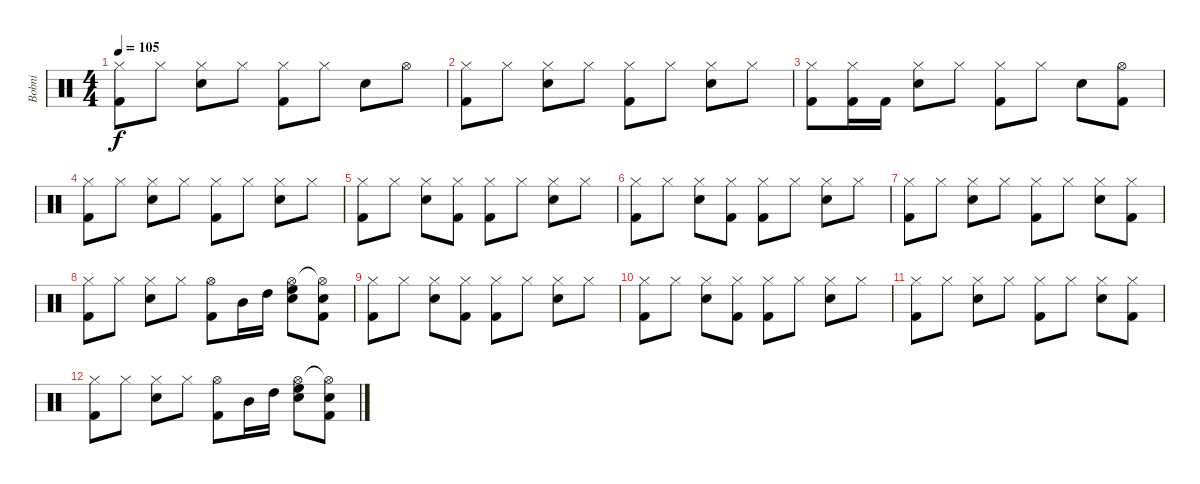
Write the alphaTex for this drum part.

\track ("Bobni" "Bobni") {instrument percussion}
\staff {score}
\articulation defaults
\ts (4 4)
\tempo 105
\clef neutral
\ks c
("Hi-Hat (closed)" "Kick (hit) 2").8{dy f} "Hi-Hat (closed)".8 ("Hi-Hat (closed)" "Snare (hit) 2").8 "Hi-Hat (closed)".8 ("Hi-Hat (closed)" "Kick (hit) 2").8 "Hi-Hat (closed)".8 "Snare (hit) 2".8 "Hi-Hat (open)".8 |
("Hi-Hat (closed)" "Kick (hit) 2").8 "Hi-Hat (closed)".8 ("Hi-Hat (closed)" "Snare (hit) 2").8 "Hi-Hat (closed)".8 ("Hi-Hat (closed)" "Kick (hit) 2").8 "Hi-Hat (closed)".8 ("Hi-Hat (closed)" "Snare (hit) 2").8 "Hi-Hat (closed)".8 |
("Hi-Hat (closed)" "Kick (hit) 2").8 ("Hi-Hat (closed)" "Kick (hit) 2").16 "Kick (hit) 2".16 ("Hi-Hat (closed)" "Snare (hit) 2").8 "Hi-Hat (closed)".8 ("Hi-Hat (closed)" "Kick (hit) 2").8 "Hi-Hat (closed)".8 "Snare (hit) 2".8 ("Hi-Hat (open)" "Kick (hit) 2").8 |
("Hi-Hat (closed)" "Kick (hit) 2").8 "Hi-Hat (closed)".8 ("Hi-Hat (closed)" "Snare (hit) 2").8 "Hi-Hat (closed)".8 ("Hi-Hat (closed)" "Kick (hit) 2").8 "Hi-Hat (closed)".8 ("Hi-Hat (closed)" "Snare (hit) 2").8 "Hi-Hat (closed)".8 |
("Hi-Hat (closed)" "Kick (hit) 2").8 "Hi-Hat (closed)".8 ("Hi-Hat (closed)" "Snare (hit) 2").8 ("Hi-Hat (closed)" "Kick (hit) 2").8 ("Hi-Hat (closed)" "Kick (hit) 2").8 "Hi-Hat (closed)".8 ("Hi-Hat (closed)" "Snare (hit) 2").8 "Hi-Hat (closed)".8 |
("Hi-Hat (closed)" "Kick (hit) 2").8 "Hi-Hat (closed)".8 ("Hi-Hat (closed)" "Snare (hit) 2").8 ("Hi-Hat (closed)" "Kick (hit) 2").8 ("Hi-Hat (closed)" "Kick (hit) 2").8 "Hi-Hat (closed)".8 ("Hi-Hat (closed)" "Snare (hit) 2").8 "Hi-Hat (closed)".8 |
("Hi-Hat (closed)" "Kick (hit) 2").8 "Hi-Hat (closed)".8 ("Hi-Hat (closed)" "Snare (hit) 2").8 "Hi-Hat (closed)".8 ("Hi-Hat (closed)" "Kick (hit) 2").8 "Hi-Hat (closed)".8 ("Hi-Hat (closed)" "Snare (hit) 2").8 ("Hi-Hat (closed)" "Kick (hit) 2").8 |
("Hi-Hat (closed)" "Kick (hit) 2").8 "Hi-Hat (closed)".8 ("Hi-Hat (closed)" "Snare (hit) 2").8 "Hi-Hat (closed)".8 ("Hi-Hat (open)" "Kick (hit) 2").8 "Mid Tom (hit)".16 "High Tom (hit)".16 ("Hi-Hat (open)" "Snare (hit) 2" "High Floor Tom (hit)").8 ("Hi-Hat (open)"{t} "Snare (hit) 2" "Kick (hit) 2").8 |
("Hi-Hat (closed)" "Kick (hit) 2").8 "Hi-Hat (closed)".8 ("Hi-Hat (closed)" "Snare (hit) 2").8 ("Hi-Hat (closed)" "Kick (hit) 2").8 ("Hi-Hat (closed)" "Kick (hit) 2").8 "Hi-Hat (closed)".8 ("Hi-Hat (closed)" "Snare (hit) 2").8 "Hi-Hat (closed)".8 |
("Hi-Hat (closed)" "Kick (hit) 2").8 "Hi-Hat (closed)".8 ("Hi-Hat (closed)" "Snare (hit) 2").8 ("Hi-Hat (closed)" "Kick (hit) 2").8 ("Hi-Hat (closed)" "Kick (hit) 2").8 "Hi-Hat (closed)".8 ("Hi-Hat (closed)" "Snare (hit) 2").8 "Hi-Hat (closed)".8 |
("Hi-Hat (closed)" "Kick (hit) 2").8 "Hi-Hat (closed)".8 ("Hi-Hat (closed)" "Snare (hit) 2").8 "Hi-Hat (closed)".8 ("Hi-Hat (closed)" "Kick (hit) 2").8 "Hi-Hat (closed)".8 ("Hi-Hat (closed)" "Snare (hit) 2").8 ("Hi-Hat (closed)" "Kick (hit) 2").8 |
("Hi-Hat (closed)" "Kick (hit) 2").8 "Hi-Hat (closed)".8 ("Hi-Hat (closed)" "Snare (hit) 2").8 "Hi-Hat (closed)".8 ("Hi-Hat (open)" "Kick (hit) 2").8 "Mid Tom (hit)".16 "High Tom (hit)".16 ("Hi-Hat (open)" "Snare (hit) 2" "High Floor Tom (hit)").8 ("Hi-Hat (open)"{t} "Snare (hit) 2" "Kick (hit) 2").8
